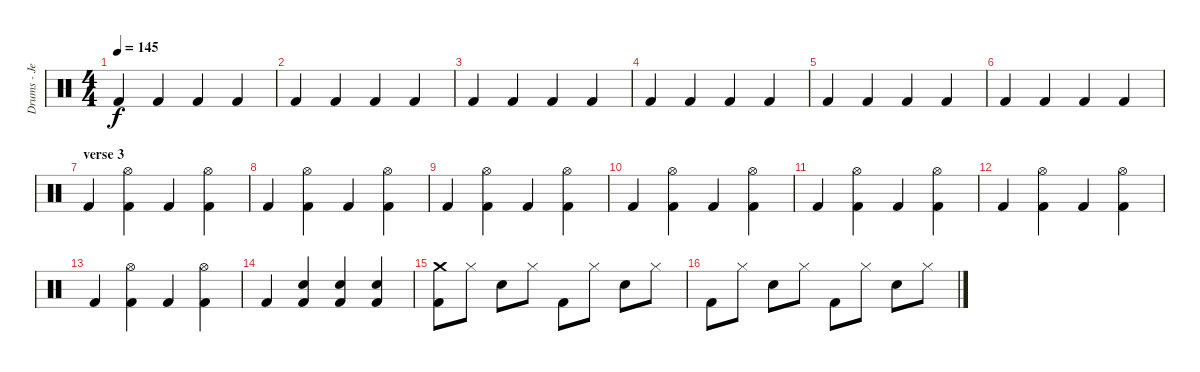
\track ("Drums - Jeremiah Green" "Drums - Je") {instrument percussion}
\staff {score}
\articulation defaults
\ts (4 4)
\tempo 145
\clef neutral
\ks c "Kick (hit) 2".4{dy f} "Kick (hit) 2".4 "Kick (hit) 2".4 "Kick (hit) 2".4
|
"Kick (hit) 2".4 "Kick (hit) 2".4 "Kick (hit) 2".4 "Kick (hit) 2".4 |
"Kick (hit) 2".4 "Kick (hit) 2".4 "Kick (hit) 2".4 "Kick (hit) 2".4 |
"Kick (hit) 2".4 "Kick (hit) 2".4 "Kick (hit) 2".4 "Kick (hit) 2".4 |
"Kick (hit) 2".4 "Kick (hit) 2".4 "Kick (hit) 2".4 "Kick (hit) 2".4 |
"Kick (hit) 2".4 "Kick (hit) 2".4 "Kick (hit) 2".4 "Kick (hit) 2".4 |
\section ("" "verse 3")
"Kick (hit) 2".4 ("Hi-Hat (open)" "Kick (hit) 2").4 "Kick (hit) 2".4 ("Hi-Hat (open)" "Kick (hit) 2").4 |
"Kick (hit) 2".4 ("Hi-Hat (open)" "Kick (hit) 2").4 "Kick (hit) 2".4 ("Hi-Hat (open)" "Kick (hit) 2").4 |
"Kick (hit) 2".4 ("Hi-Hat (open)" "Kick (hit) 2").4 "Kick (hit) 2".4 ("Hi-Hat (open)" "Kick (hit) 2").4 |
"Kick (hit) 2".4 ("Hi-Hat (open)" "Kick (hit) 2").4 "Kick (hit) 2".4 ("Hi-Hat (open)" "Kick (hit) 2").4 |
"Kick (hit) 2".4 ("Hi-Hat (open)" "Kick (hit) 2").4 "Kick (hit) 2".4 ("Hi-Hat (open)" "Kick (hit) 2").4 |
"Kick (hit) 2".4 ("Hi-Hat (open)" "Kick (hit) 2").4 "Kick (hit) 2".4 ("Hi-Hat (open)" "Kick (hit) 2").4 |
"Kick (hit) 2".4 ("Hi-Hat (open)" "Kick (hit) 2").4 "Kick (hit) 2".4 ("Hi-Hat (open)" "Kick (hit) 2").4 |
"Kick (hit) 2".4 ("Electric Snare (hit)" "Kick (hit) 2").4 ("Electric Snare (hit)" "Kick (hit) 2").4 ("Electric Snare (hit)" "Kick (hit) 2").4 |
("Crash medium (hit)" "Kick (hit) 2").8 "Hi-Hat (closed)".8 "Electric Snare (hit)".8 "Hi-Hat (closed)".8 "Kick (hit) 2".8 "Hi-Hat (closed)".8 "Electric Snare (hit)".8 "Hi-Hat (closed)".8 |
"Kick (hit) 2".8 "Hi-Hat (closed)".8 "Electric Snare (hit)".8 "Hi-Hat (closed)".8 "Kick (hit) 2".8 "Hi-Hat (closed)".8 "Electric Snare (hit)".8 "Hi-Hat (closed)".8
